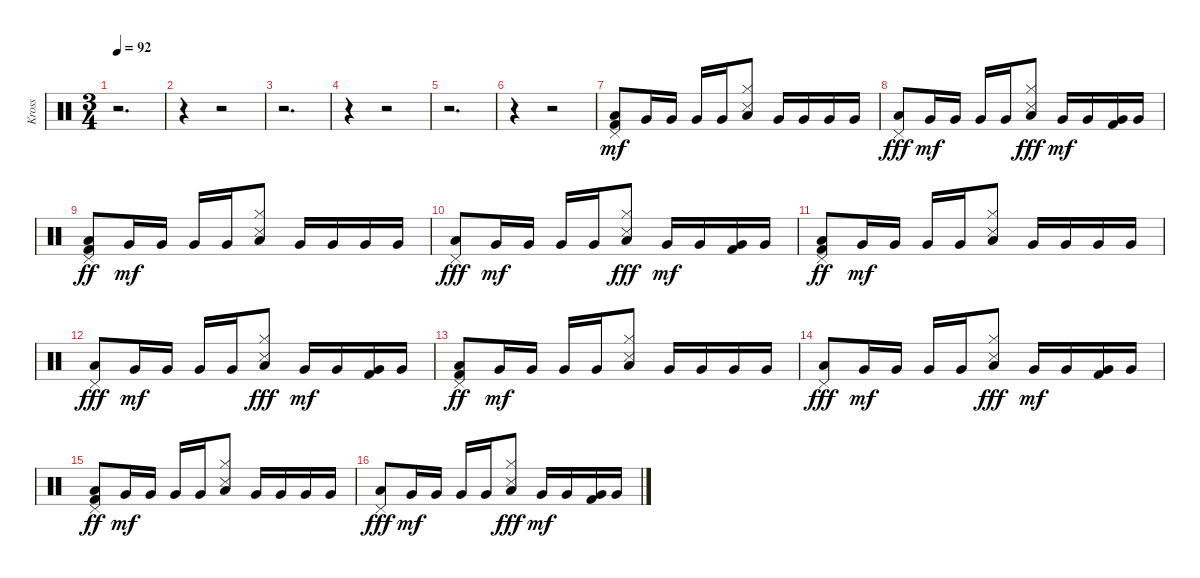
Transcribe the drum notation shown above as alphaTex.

\track ("Kross" "Kross") {instrument percussion}
\staff {score}
\articulation defaults
\ts (3 4)
\tempo 92
\clef neutral
\ks c
r.2{d dy fff} |
r.4 r.2 |
r.2{d} |
r.4 r.2 |
r.2{d} |
r.4 r.2 |
("Pedal Hi-Hat (hit)" "Low Floor Tom (hit)" "Kick (hit) 2").8{dy mf} "Very Low Tom (hit)".16 "Very Low Tom (hit)".16 "Very Low Tom (hit)".16 "Very Low Tom (hit)".16 ("Hi-Hat (closed)" "Snare (side stick) 3" "Low Floor Tom (hit)").8 "Very Low Tom (hit)".16 "Very Low Tom (hit)".16 "Very Low Tom (hit)".16 "Very Low Tom (hit)".16 |
("Pedal Hi-Hat (hit)" "Low Floor Tom (hit)").8{dy fff} "Very Low Tom (hit)".16{dy mf} "Very Low Tom (hit)".16 "Very Low Tom (hit)".16 "Very Low Tom (hit)".16 ("Hi-Hat (closed)" "Snare (side stick) 3" "Low Floor Tom (hit)").8{dy fff} "Very Low Tom (hit)".16{dy mf} "Very Low Tom (hit)".16 ("Very Low Tom (hit)" "Kick (hit) 2").16 "Very Low Tom (hit)".16 |
("Pedal Hi-Hat (hit)" "Low Floor Tom (hit)" "Kick (hit) 2").8{dy ff} "Very Low Tom (hit)".16{dy mf} "Very Low Tom (hit)".16 "Very Low Tom (hit)".16 "Very Low Tom (hit)".16 ("Hi-Hat (closed)" "Snare (side stick) 3" "Low Floor Tom (hit)").8 "Very Low Tom (hit)".16 "Very Low Tom (hit)".16 "Very Low Tom (hit)".16 "Very Low Tom (hit)".16 |
("Pedal Hi-Hat (hit)" "Low Floor Tom (hit)").8{dy fff} "Very Low Tom (hit)".16{dy mf} "Very Low Tom (hit)".16 "Very Low Tom (hit)".16 "Very Low Tom (hit)".16 ("Hi-Hat (closed)" "Snare (side stick) 3" "Low Floor Tom (hit)").8{dy fff} "Very Low Tom (hit)".16{dy mf} "Very Low Tom (hit)".16 ("Very Low Tom (hit)" "Kick (hit) 2").16 "Very Low Tom (hit)".16 |
("Pedal Hi-Hat (hit)" "Low Floor Tom (hit)" "Kick (hit) 2").8{dy ff} "Very Low Tom (hit)".16{dy mf} "Very Low Tom (hit)".16 "Very Low Tom (hit)".16 "Very Low Tom (hit)".16 ("Hi-Hat (closed)" "Snare (side stick) 3" "Low Floor Tom (hit)").8 "Very Low Tom (hit)".16 "Very Low Tom (hit)".16 "Very Low Tom (hit)".16 "Very Low Tom (hit)".16 |
("Pedal Hi-Hat (hit)" "Low Floor Tom (hit)").8{dy fff} "Very Low Tom (hit)".16{dy mf} "Very Low Tom (hit)".16 "Very Low Tom (hit)".16 "Very Low Tom (hit)".16 ("Hi-Hat (closed)" "Snare (side stick) 3" "Low Floor Tom (hit)").8{dy fff} "Very Low Tom (hit)".16{dy mf} "Very Low Tom (hit)".16 ("Very Low Tom (hit)" "Kick (hit) 2").16 "Very Low Tom (hit)".16 |
("Pedal Hi-Hat (hit)" "Low Floor Tom (hit)" "Kick (hit) 2").8{dy ff} "Very Low Tom (hit)".16{dy mf} "Very Low Tom (hit)".16 "Very Low Tom (hit)".16 "Very Low Tom (hit)".16 ("Hi-Hat (closed)" "Snare (side stick) 3" "Low Floor Tom (hit)").8 "Very Low Tom (hit)".16 "Very Low Tom (hit)".16 "Very Low Tom (hit)".16 "Very Low Tom (hit)".16 |
("Pedal Hi-Hat (hit)" "Low Floor Tom (hit)").8{dy fff} "Very Low Tom (hit)".16{dy mf} "Very Low Tom (hit)".16 "Very Low Tom (hit)".16 "Very Low Tom (hit)".16 ("Hi-Hat (closed)" "Snare (side stick) 3" "Low Floor Tom (hit)").8{dy fff} "Very Low Tom (hit)".16{dy mf} "Very Low Tom (hit)".16 ("Very Low Tom (hit)" "Kick (hit) 2").16 "Very Low Tom (hit)".16 |
("Pedal Hi-Hat (hit)" "Low Floor Tom (hit)" "Kick (hit) 2").8{dy ff} "Very Low Tom (hit)".16{dy mf} "Very Low Tom (hit)".16 "Very Low Tom (hit)".16 "Very Low Tom (hit)".16 ("Hi-Hat (closed)" "Snare (side stick) 3" "Low Floor Tom (hit)").8 "Very Low Tom (hit)".16 "Very Low Tom (hit)".16 "Very Low Tom (hit)".16 "Very Low Tom (hit)".16 |
("Pedal Hi-Hat (hit)" "Low Floor Tom (hit)").8{dy fff} "Very Low Tom (hit)".16{dy mf} "Very Low Tom (hit)".16 "Very Low Tom (hit)".16 "Very Low Tom (hit)".16 ("Hi-Hat (closed)" "Snare (side stick) 3" "Low Floor Tom (hit)").8{dy fff} "Very Low Tom (hit)".16{dy mf} "Very Low Tom (hit)".16 ("Very Low Tom (hit)" "Kick (hit) 2").16 "Very Low Tom (hit)".16
